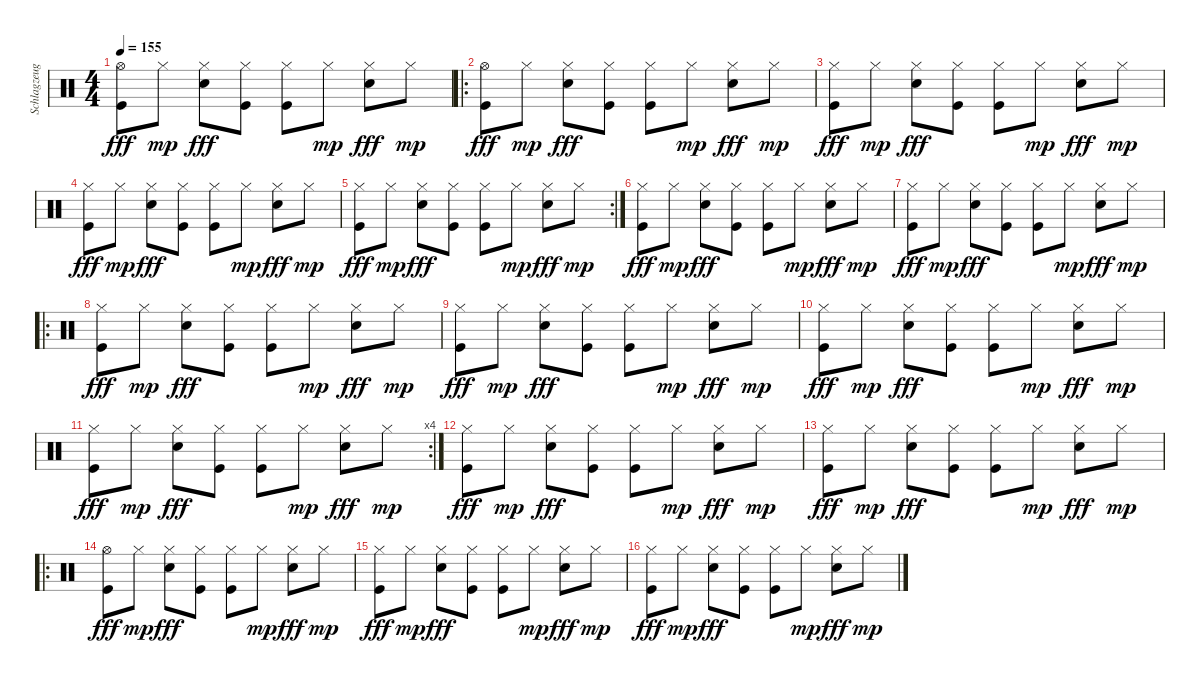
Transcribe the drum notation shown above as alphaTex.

\track ("Schlagzeug" "Schlagzeug") {instrument percussion}
\staff {score}
\articulation defaults
\ts (4 4)
\tempo 155
\clef neutral
\ks c
("Hi-Hat (open)" "Kick (hit)").8{dy fff} "Hi-Hat (closed)".8{dy mp} ("Hi-Hat (closed)" "Electric Snare (hit)").8{dy fff} ("Hi-Hat (closed)" "Kick (hit)").8 ("Hi-Hat (closed)" "Kick (hit)").8 "Hi-Hat (closed)".8{dy mp} ("Hi-Hat (closed)" "Electric Snare (hit)").8{dy fff} "Hi-Hat (closed)".8{dy mp} |
\ro
("Hi-Hat (open)" "Kick (hit)").8{dy fff} "Hi-Hat (closed)".8{dy mp} ("Hi-Hat (closed)" "Electric Snare (hit)").8{dy fff} ("Hi-Hat (closed)" "Kick (hit)").8 ("Hi-Hat (closed)" "Kick (hit)").8 "Hi-Hat (closed)".8{dy mp} ("Hi-Hat (closed)" "Electric Snare (hit)").8{dy fff} "Hi-Hat (closed)".8{dy mp} |
("Hi-Hat (closed)" "Kick (hit)").8{dy fff} "Hi-Hat (closed)".8{dy mp} ("Hi-Hat (closed)" "Electric Snare (hit)").8{dy fff} ("Hi-Hat (closed)" "Kick (hit)").8 ("Hi-Hat (closed)" "Kick (hit)").8 "Hi-Hat (closed)".8{dy mp} ("Hi-Hat (closed)" "Electric Snare (hit)").8{dy fff} "Hi-Hat (closed)".8{dy mp} |
("Hi-Hat (closed)" "Kick (hit)").8{dy fff} "Hi-Hat (closed)".8{dy mp} ("Hi-Hat (closed)" "Electric Snare (hit)").8{dy fff} ("Hi-Hat (closed)" "Kick (hit)").8 ("Hi-Hat (closed)" "Kick (hit)").8 "Hi-Hat (closed)".8{dy mp} ("Hi-Hat (closed)" "Electric Snare (hit)").8{dy fff} "Hi-Hat (closed)".8{dy mp} |
\rc 2
("Hi-Hat (closed)" "Kick (hit)").8{dy fff} "Hi-Hat (closed)".8{dy mp} ("Hi-Hat (closed)" "Electric Snare (hit)").8{dy fff} ("Hi-Hat (closed)" "Kick (hit)").8 ("Hi-Hat (closed)" "Kick (hit)").8 "Hi-Hat (closed)".8{dy mp} ("Hi-Hat (closed)" "Electric Snare (hit)").8{dy fff} "Hi-Hat (closed)".8{dy mp} |
("Hi-Hat (closed)" "Kick (hit)").8{dy fff} "Hi-Hat (closed)".8{dy mp} ("Hi-Hat (closed)" "Electric Snare (hit)").8{dy fff} ("Hi-Hat (closed)" "Kick (hit)").8 ("Hi-Hat (closed)" "Kick (hit)").8 "Hi-Hat (closed)".8{dy mp} ("Hi-Hat (closed)" "Electric Snare (hit)").8{dy fff} "Hi-Hat (closed)".8{dy mp} |
("Hi-Hat (closed)" "Kick (hit)").8{dy fff} "Hi-Hat (closed)".8{dy mp} ("Hi-Hat (closed)" "Electric Snare (hit)").8{dy fff} ("Hi-Hat (closed)" "Kick (hit)").8 ("Hi-Hat (closed)" "Kick (hit)").8 "Hi-Hat (closed)".8{dy mp} ("Hi-Hat (closed)" "Electric Snare (hit)").8{dy fff} "Hi-Hat (closed)".8{dy mp} |
\ro
("Hi-Hat (closed)" "Kick (hit)").8{dy fff} "Hi-Hat (closed)".8{dy mp} ("Hi-Hat (closed)" "Electric Snare (hit)").8{dy fff} ("Hi-Hat (closed)" "Kick (hit)").8 ("Hi-Hat (closed)" "Kick (hit)").8 "Hi-Hat (closed)".8{dy mp} ("Hi-Hat (closed)" "Electric Snare (hit)").8{dy fff} "Hi-Hat (closed)".8{dy mp} |
("Hi-Hat (closed)" "Kick (hit)").8{dy fff} "Hi-Hat (closed)".8{dy mp} ("Hi-Hat (closed)" "Electric Snare (hit)").8{dy fff} ("Hi-Hat (closed)" "Kick (hit)").8 ("Hi-Hat (closed)" "Kick (hit)").8 "Hi-Hat (closed)".8{dy mp} ("Hi-Hat (closed)" "Electric Snare (hit)").8{dy fff} "Hi-Hat (closed)".8{dy mp} |
("Hi-Hat (closed)" "Kick (hit)").8{dy fff} "Hi-Hat (closed)".8{dy mp} ("Hi-Hat (closed)" "Electric Snare (hit)").8{dy fff} ("Hi-Hat (closed)" "Kick (hit)").8 ("Hi-Hat (closed)" "Kick (hit)").8 "Hi-Hat (closed)".8{dy mp} ("Hi-Hat (closed)" "Electric Snare (hit)").8{dy fff} "Hi-Hat (closed)".8{dy mp} |
\rc 4
("Hi-Hat (closed)" "Kick (hit)").8{dy fff} "Hi-Hat (closed)".8{dy mp} ("Hi-Hat (closed)" "Electric Snare (hit)").8{dy fff} ("Hi-Hat (closed)" "Kick (hit)").8 ("Hi-Hat (closed)" "Kick (hit)").8 "Hi-Hat (closed)".8{dy mp} ("Hi-Hat (closed)" "Electric Snare (hit)").8{dy fff} "Hi-Hat (closed)".8{dy mp} |
("Hi-Hat (closed)" "Kick (hit)").8{dy fff} "Hi-Hat (closed)".8{dy mp} ("Hi-Hat (closed)" "Electric Snare (hit)").8{dy fff} ("Hi-Hat (closed)" "Kick (hit)").8 ("Hi-Hat (closed)" "Kick (hit)").8 "Hi-Hat (closed)".8{dy mp} ("Hi-Hat (closed)" "Electric Snare (hit)").8{dy fff} "Hi-Hat (closed)".8{dy mp} |
("Hi-Hat (closed)" "Kick (hit)").8{dy fff} "Hi-Hat (closed)".8{dy mp} ("Hi-Hat (closed)" "Electric Snare (hit)").8{dy fff} ("Hi-Hat (closed)" "Kick (hit)").8 ("Hi-Hat (closed)" "Kick (hit)").8 "Hi-Hat (closed)".8{dy mp} ("Hi-Hat (closed)" "Electric Snare (hit)").8{dy fff} "Hi-Hat (closed)".8{dy mp} |
\ro
("Hi-Hat (open)" "Kick (hit)").8{dy fff} "Hi-Hat (closed)".8{dy mp} ("Hi-Hat (closed)" "Electric Snare (hit)").8{dy fff} ("Hi-Hat (closed)" "Kick (hit)").8 ("Hi-Hat (closed)" "Kick (hit)").8 "Hi-Hat (closed)".8{dy mp} ("Hi-Hat (closed)" "Electric Snare (hit)").8{dy fff} "Hi-Hat (closed)".8{dy mp} |
("Hi-Hat (closed)" "Kick (hit)").8{dy fff} "Hi-Hat (closed)".8{dy mp} ("Hi-Hat (closed)" "Electric Snare (hit)").8{dy fff} ("Hi-Hat (closed)" "Kick (hit)").8 ("Hi-Hat (closed)" "Kick (hit)").8 "Hi-Hat (closed)".8{dy mp} ("Hi-Hat (closed)" "Electric Snare (hit)").8{dy fff} "Hi-Hat (closed)".8{dy mp} |
("Hi-Hat (closed)" "Kick (hit)").8{dy fff} "Hi-Hat (closed)".8{dy mp} ("Hi-Hat (closed)" "Electric Snare (hit)").8{dy fff} ("Hi-Hat (closed)" "Kick (hit)").8 ("Hi-Hat (closed)" "Kick (hit)").8 "Hi-Hat (closed)".8{dy mp} ("Hi-Hat (closed)" "Electric Snare (hit)").8{dy fff} "Hi-Hat (closed)".8{dy mp}
